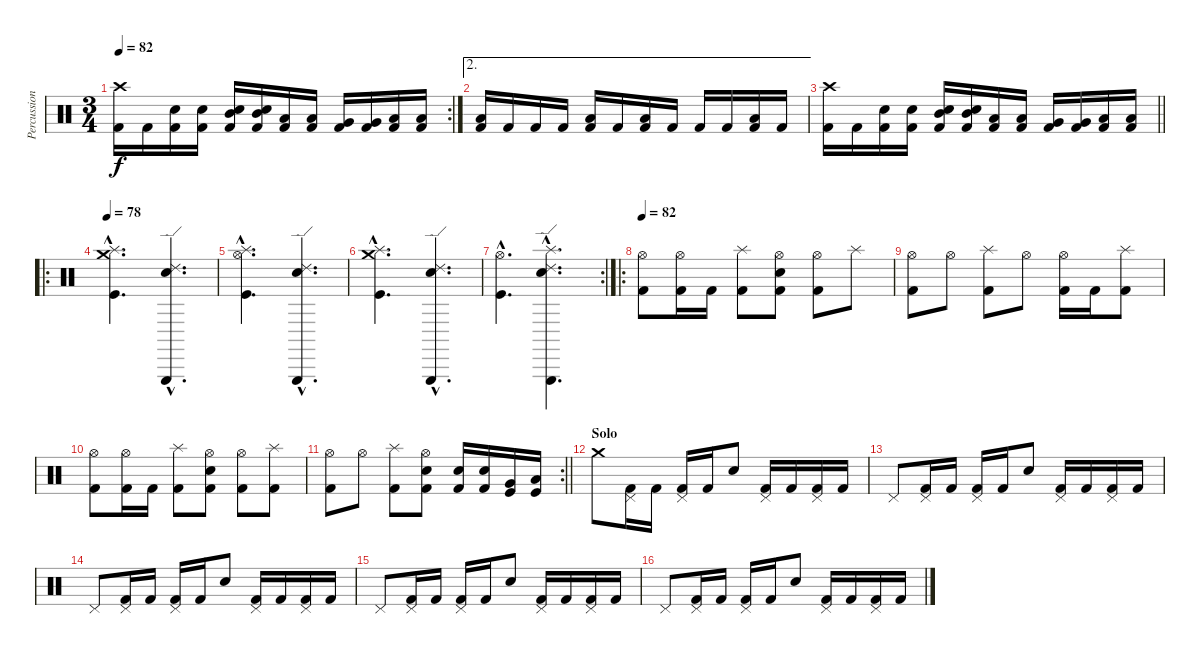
\track ("Percussion" "Percussion") {instrument percussion}
\staff {score}
\articulation defaults
\rc 2
\ts (3 4)
\tempo 82
\clef neutral
\ks c
("Crash high (hit)" "Kick (hit) 2").16{dy f} "Kick (hit) 2".16 ("Electric Snare (hit)" "Kick (hit) 2").16 ("Electric Snare (hit)" "Kick (hit) 2").16 ("Electric Snare (hit)" "Mid Tom (hit)" "Kick (hit) 2").16 ("Electric Snare (hit)" "Mid Tom (hit)" "Kick (hit) 2").16 ("Low Tom (hit)" "Kick (hit) 2").16 ("Low Tom (hit)" "Kick (hit) 2").16 ("Very Low Tom (hit)" "Kick (hit) 2").16 ("Very Low Tom (hit)" "Kick (hit) 2").16 ("Low Floor Tom (hit)" "Kick (hit) 2").16 ("Low Floor Tom (hit)" "Kick (hit) 2").16 |
\ae 2
("Low Floor Tom (hit)" "Kick (hit) 2").16 "Kick (hit) 2".16 "Kick (hit) 2".16 "Kick (hit) 2".16 ("Low Floor Tom (hit)" "Kick (hit) 2").16 "Kick (hit) 2".16 ("Low Floor Tom (hit)" "Kick (hit) 2").16 "Kick (hit) 2".16 "Kick (hit) 2".16 "Kick (hit) 2".16 ("Low Floor Tom (hit)" "Kick (hit) 2").16 "Kick (hit) 2".16 |
\barLineRight lightlight
("Crash high (hit)" "Kick (hit) 2").16 "Kick (hit) 2".16 ("Electric Snare (hit)" "Kick (hit) 2").16 ("Electric Snare (hit)" "Kick (hit) 2").16 ("Electric Snare (hit)" "Mid Tom (hit)" "Kick (hit) 2").16 ("Electric Snare (hit)" "Mid Tom (hit)" "Kick (hit) 2").16 ("Low Tom (hit)" "Kick (hit) 2").16 ("Low Tom (hit)" "Kick (hit) 2").16 ("Very Low Tom (hit)" "Kick (hit) 2").16 ("Very Low Tom (hit)" "Kick (hit) 2").16 ("Low Floor Tom (hit)" "Kick (hit) 2").16 ("Low Floor Tom (hit)" "Kick (hit) 2").16 |
\ro
\tempo 78
("Crash medium (hit)"{hac} "Splash (hit)"{hac} "Kick (hit)"{hac}).4{d} ("Triangle (hit)"{hac} "Ride (edge) 2"{hac} "Snare (hit) 2"{hac}).4{d} |
("Hi-Hat (open)"{hac} "Splash (hit)"{hac} "Kick (hit)"{hac}).4{d} ("Triangle (hit)"{hac} "Ride (edge) 2"{hac} "Snare (hit) 2"{hac}).4{d} |
("Crash medium (hit)"{hac} "Splash (hit)"{hac} "Kick (hit)"{hac}).4{d} ("Triangle (hit)"{hac} "Ride (edge) 2"{hac} "Snare (hit) 2"{hac}).4{d} |
\rc 2
("Hi-Hat (open)"{hac} "Kick (hit)"{hac}).4{d} ("Triangle (hit)"{hac} "Ride (edge) 2"{hac} "Splash (hit)"{hac} "Snare (hit) 2"{hac}).4{d} |
\ro
\tempo 82
("Hi-Hat (open)" "Kick (hit) 2").8 ("Hi-Hat (open)" "Kick (hit) 2").16 "Kick (hit) 2".16 ("Splash (hit)" "Kick (hit) 2").8 ("Hi-Hat (open)" "Electric Snare (hit)" "Kick (hit) 2").8 ("Hi-Hat (open)" "Kick (hit) 2").8 "Splash (hit)".8 |
("Hi-Hat (open)" "Kick (hit) 2").8 "Hi-Hat (open)".8 ("Splash (hit)" "Kick (hit) 2").8 "Hi-Hat (open)".8 ("Hi-Hat (open)" "Kick (hit) 2").16 "Kick (hit) 2".16 ("Splash (hit)" "Kick (hit) 2").8 |
("Hi-Hat (open)" "Kick (hit) 2").8 ("Hi-Hat (open)" "Kick (hit) 2").16 "Kick (hit) 2".16 ("Splash (hit)" "Kick (hit) 2").8 ("Hi-Hat (open)" "Electric Snare (hit)" "Kick (hit) 2").8 ("Hi-Hat (open)" "Kick (hit) 2").8 ("Splash (hit)" "Kick (hit) 2").8 |
\rc 2
\barLineRight lightlight
("Hi-Hat (open)" "Kick (hit) 2").8 "Hi-Hat (open)".8 ("Splash (hit)" "Kick (hit) 2").8 ("Hi-Hat (open)" "Electric Snare (hit)" "Kick (hit) 2").8 ("Electric Snare (hit)" "Kick (hit) 2").16 ("Electric Snare (hit)" "Kick (hit) 2").16 ("Very Low Tom (hit)" "Kick (hit)").16 ("Low Floor Tom (hit)" "Kick (hit)").16 |
\section ("" "Solo")
"Crash medium (hit)".8 ("Pedal Hi-Hat (hit)" "Kick (hit) 2").16 "Kick (hit) 2".16 ("Pedal Hi-Hat (hit)" "Kick (hit) 2").16 "Kick (hit) 2".16 "Electric Snare (hit)".8 ("Pedal Hi-Hat (hit)" "Kick (hit) 2").16 "Kick (hit) 2".16 ("Pedal Hi-Hat (hit)" "Kick (hit) 2").16 "Kick (hit) 2".16 |
"Pedal Hi-Hat (hit)".8 ("Pedal Hi-Hat (hit)" "Kick (hit) 2").16 "Kick (hit) 2".16 ("Pedal Hi-Hat (hit)" "Kick (hit) 2").16 "Kick (hit) 2".16 "Electric Snare (hit)".8 ("Pedal Hi-Hat (hit)" "Kick (hit) 2").16 "Kick (hit) 2".16 ("Pedal Hi-Hat (hit)" "Kick (hit) 2").16 "Kick (hit) 2".16 |
"Pedal Hi-Hat (hit)".8 ("Pedal Hi-Hat (hit)" "Kick (hit) 2").16 "Kick (hit) 2".16 ("Pedal Hi-Hat (hit)" "Kick (hit) 2").16 "Kick (hit) 2".16 "Electric Snare (hit)".8 ("Pedal Hi-Hat (hit)" "Kick (hit) 2").16 "Kick (hit) 2".16 ("Pedal Hi-Hat (hit)" "Kick (hit) 2").16 "Kick (hit) 2".16 |
"Pedal Hi-Hat (hit)".8 ("Pedal Hi-Hat (hit)" "Kick (hit) 2").16 "Kick (hit) 2".16 ("Pedal Hi-Hat (hit)" "Kick (hit) 2").16 "Kick (hit) 2".16 "Electric Snare (hit)".8 ("Pedal Hi-Hat (hit)" "Kick (hit) 2").16 "Kick (hit) 2".16 ("Pedal Hi-Hat (hit)" "Kick (hit) 2").16 "Kick (hit) 2".16 |
"Pedal Hi-Hat (hit)".8 ("Pedal Hi-Hat (hit)" "Kick (hit) 2").16 "Kick (hit) 2".16 ("Pedal Hi-Hat (hit)" "Kick (hit) 2").16 "Kick (hit) 2".16 "Electric Snare (hit)".8 ("Pedal Hi-Hat (hit)" "Kick (hit) 2").16 "Kick (hit) 2".16 ("Pedal Hi-Hat (hit)" "Kick (hit) 2").16 "Kick (hit) 2".16
